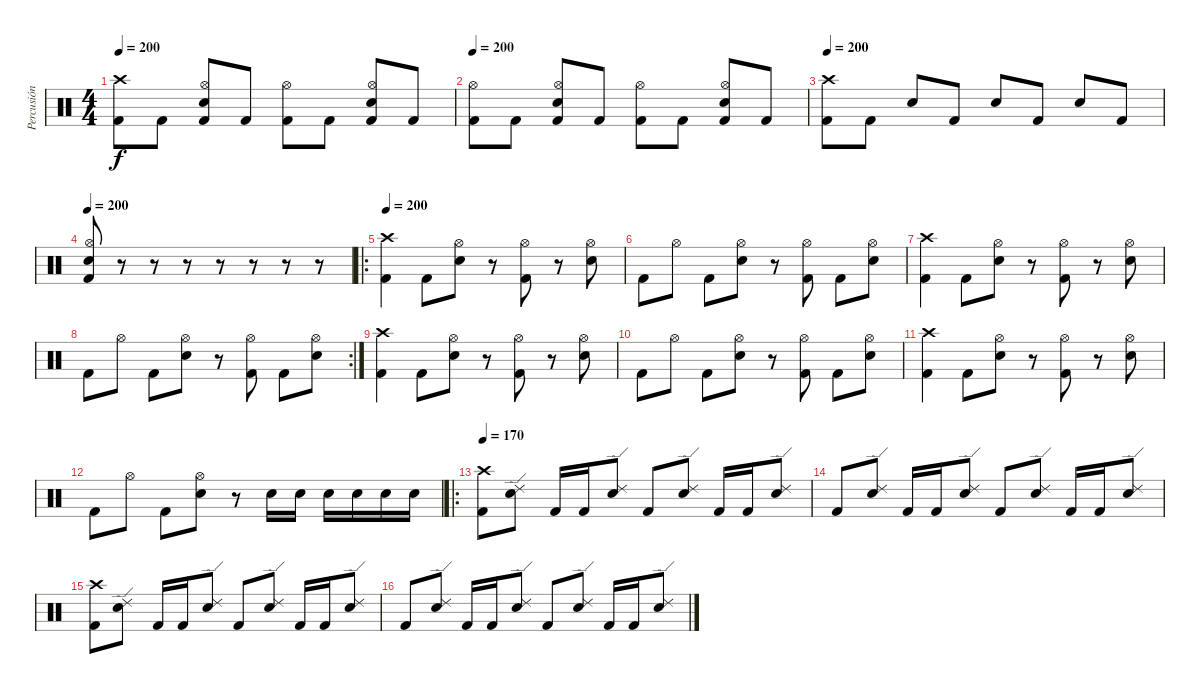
\track ("Percusión" "Percusión") {instrument percussion}
\staff {score}
\articulation defaults
\ts (4 4)
\tempo 200
\clef neutral
\ks c
("Crash high (hit)" "Kick (hit) 2").8{dy f} "Kick (hit) 2".8 ("Hi-Hat (open)" "Kick (hit) 2" "Electric Snare (hit)").8 "Kick (hit) 2".8 ("Hi-Hat (open)" "Kick (hit) 2").8 "Kick (hit) 2".8 ("Hi-Hat (open)" "Kick (hit) 2" "Electric Snare (hit)").8 "Kick (hit) 2".8 |
\tempo 200
("Hi-Hat (open)" "Kick (hit) 2").8 "Kick (hit) 2".8 ("Hi-Hat (open)" "Kick (hit) 2" "Electric Snare (hit)").8 "Kick (hit) 2".8 ("Hi-Hat (open)" "Kick (hit) 2").8 "Kick (hit) 2".8 ("Hi-Hat (open)" "Kick (hit) 2" "Electric Snare (hit)").8 "Kick (hit) 2".8 |
\tempo 200
("Crash high (hit)" "Kick (hit) 2").8 "Kick (hit) 2".8 "Electric Snare (hit)".8 "Kick (hit) 2".8 "Electric Snare (hit)".8 "Kick (hit) 2".8 "Electric Snare (hit)".8 "Kick (hit) 2".8 |
\tempo 200
("Hi-Hat (open)" "Electric Snare (hit)" "Kick (hit) 2").8 r.8 r.8 r.8 r.8 r.8 r.8 r.8 |
\ro
\tempo 170
\tempo 200
("Crash high (hit)" "Kick (hit) 2").4 "Kick (hit) 2".8 ("Hi-Hat (open)" "Electric Snare (hit)").8 r.8 ("Hi-Hat (open)" "Kick (hit) 2").8 r.8 ("Hi-Hat (open)" "Electric Snare (hit)").8 |
"Kick (hit) 2".8 "Hi-Hat (open)".8 "Kick (hit) 2".8 ("Hi-Hat (open)" "Electric Snare (hit)").8 r.8 ("Hi-Hat (open)" "Kick (hit) 2").8 "Kick (hit) 2".8 ("Hi-Hat (open)" "Electric Snare (hit)").8 |
("Crash high (hit)" "Kick (hit) 2").4 "Kick (hit) 2".8 ("Hi-Hat (open)" "Electric Snare (hit)").8 r.8 ("Hi-Hat (open)" "Kick (hit) 2").8 r.8 ("Hi-Hat (open)" "Electric Snare (hit)").8 |
\rc 2 "Kick (hit) 2".8 "Hi-Hat (open)".8 "Kick (hit) 2".8
("Hi-Hat (open)" "Electric Snare (hit)").8 r.8 ("Hi-Hat (open)" "Kick (hit) 2").8 "Kick (hit) 2".8 ("Hi-Hat (open)" "Electric Snare (hit)").8 |
("Crash high (hit)" "Kick (hit) 2").4 "Kick (hit) 2".8 ("Hi-Hat (open)" "Electric Snare (hit)").8 r.8 ("Hi-Hat (open)" "Kick (hit) 2").8 r.8 ("Hi-Hat (open)" "Electric Snare (hit)").8 |
"Kick (hit) 2".8 "Hi-Hat (open)".8 "Kick (hit) 2".8 ("Hi-Hat (open)" "Electric Snare (hit)").8 r.8 ("Hi-Hat (open)" "Kick (hit) 2").8 "Kick (hit) 2".8 ("Hi-Hat (open)" "Electric Snare (hit)").8 |
("Crash high (hit)" "Kick (hit) 2").4 "Kick (hit) 2".8 ("Hi-Hat (open)" "Electric Snare (hit)").8 r.8 ("Hi-Hat (open)" "Kick (hit) 2").8 r.8 ("Hi-Hat (open)" "Electric Snare (hit)").8 |
"Kick (hit) 2".8 "Hi-Hat (open)".8 "Kick (hit) 2".8 ("Hi-Hat (open)" "Electric Snare (hit)").8 r.8 "Electric Snare (hit)".16 "Electric Snare (hit)".16 "Electric Snare (hit)".16 "Electric Snare (hit)".16 "Electric Snare (hit)".16 "Electric Snare (hit)".16 |
\ro
\tempo 170
("Crash high (hit)" "Kick (hit) 2").8 ("Ride (edge) 2" "Electric Snare (hit)").8 "Kick (hit) 2".16 "Kick (hit) 2".16 ("Ride (edge) 2" "Electric Snare (hit)").8 "Kick (hit) 2".8 ("Ride (edge) 2" "Electric Snare (hit)").8 "Kick (hit) 2".16 "Kick (hit) 2".16 ("Ride (edge) 2" "Electric Snare (hit)").8 |
"Kick (hit) 2".8 ("Ride (edge) 2" "Electric Snare (hit)").8 "Kick (hit) 2".16 "Kick (hit) 2".16 ("Ride (edge) 2" "Electric Snare (hit)").8 "Kick (hit) 2".8 ("Ride (edge) 2" "Electric Snare (hit)").8 "Kick (hit) 2".16 "Kick (hit) 2".16 ("Ride (edge) 2" "Electric Snare (hit)").8 |
("Crash high (hit)" "Kick (hit) 2").8 ("Ride (edge) 2" "Electric Snare (hit)").8 "Kick (hit) 2".16 "Kick (hit) 2".16 ("Ride (edge) 2" "Electric Snare (hit)").8 "Kick (hit) 2".8 ("Ride (edge) 2" "Electric Snare (hit)").8 "Kick (hit) 2".16 "Kick (hit) 2".16 ("Ride (edge) 2" "Electric Snare (hit)").8 |
"Kick (hit) 2".8 ("Ride (edge) 2" "Electric Snare (hit)").8 "Kick (hit) 2".16 "Kick (hit) 2".16 ("Ride (edge) 2" "Electric Snare (hit)").8 "Kick (hit) 2".8 ("Ride (edge) 2" "Electric Snare (hit)").8 "Kick (hit) 2".16 "Kick (hit) 2".16 ("Ride (edge) 2" "Electric Snare (hit)").8
